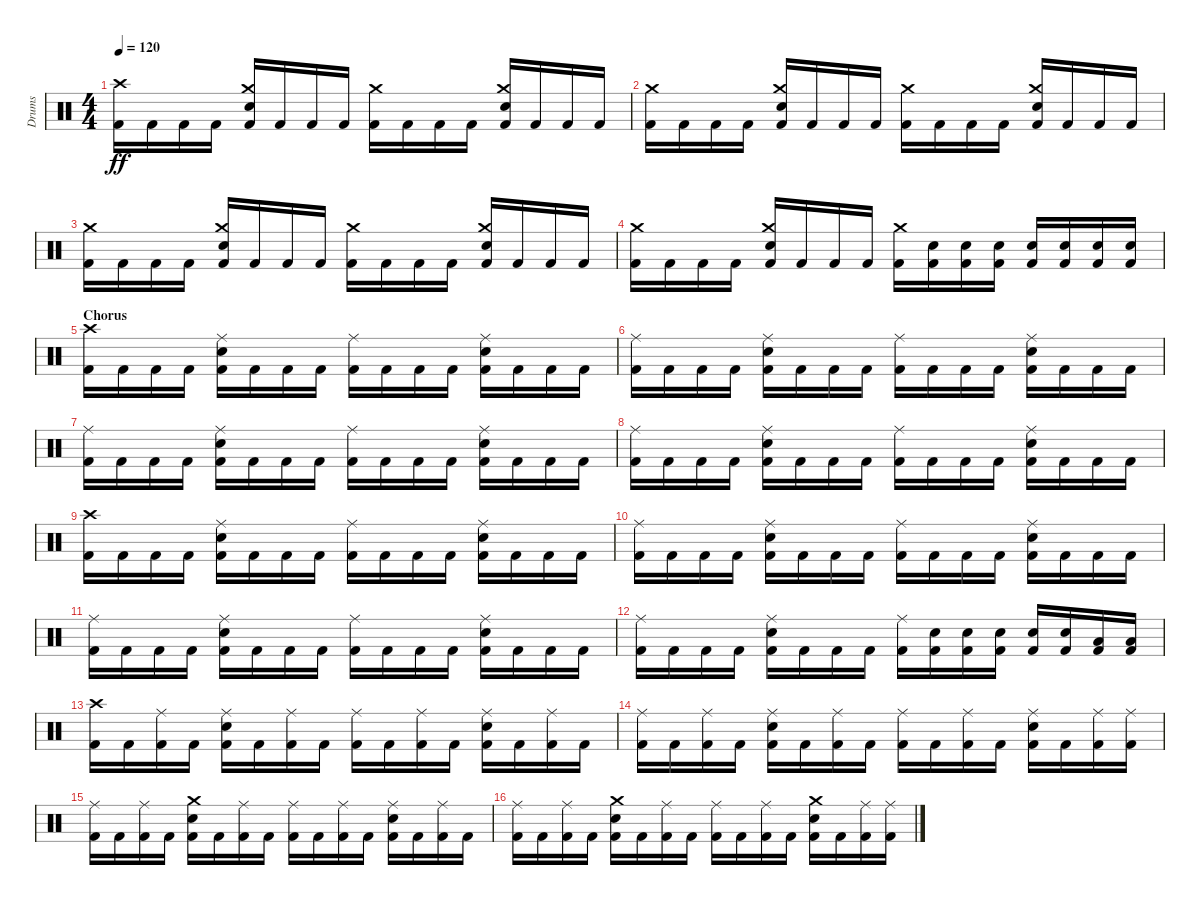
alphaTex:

\track ("Drums" "Drums") {instrument percussion}
\staff {score}
\articulation defaults
\ts (4 4)
\tempo 120
\clef neutral
\ks c
("Crash high (hit)" "Kick (hit) 2").16{dy ff} "Kick (hit) 2".16 "Kick (hit) 2".16 "Kick (hit) 2".16 ("Crash medium (hit)" "Electric Snare (hit)" "Kick (hit) 2").16 "Kick (hit) 2".16 "Kick (hit) 2".16 "Kick (hit) 2".16 ("Crash medium (hit)" "Kick (hit) 2").16 "Kick (hit) 2".16 "Kick (hit) 2".16 "Kick (hit) 2".16 ("Crash medium (hit)" "Electric Snare (hit)" "Kick (hit) 2").16 "Kick (hit) 2".16 "Kick (hit) 2".16 "Kick (hit) 2".16 |
("Crash medium (hit)" "Kick (hit) 2").16 "Kick (hit) 2".16 "Kick (hit) 2".16 "Kick (hit) 2".16 ("Crash medium (hit)" "Electric Snare (hit)" "Kick (hit) 2").16 "Kick (hit) 2".16 "Kick (hit) 2".16 "Kick (hit) 2".16 ("Crash medium (hit)" "Kick (hit) 2").16 "Kick (hit) 2".16 "Kick (hit) 2".16 "Kick (hit) 2".16 ("Crash medium (hit)" "Electric Snare (hit)" "Kick (hit) 2").16 "Kick (hit) 2".16 "Kick (hit) 2".16 "Kick (hit) 2".16 |
("Crash medium (hit)" "Kick (hit) 2").16 "Kick (hit) 2".16 "Kick (hit) 2".16 "Kick (hit) 2".16 ("Crash medium (hit)" "Electric Snare (hit)" "Kick (hit) 2").16 "Kick (hit) 2".16 "Kick (hit) 2".16 "Kick (hit) 2".16 ("Crash medium (hit)" "Kick (hit) 2").16 "Kick (hit) 2".16 "Kick (hit) 2".16 "Kick (hit) 2".16 ("Crash medium (hit)" "Electric Snare (hit)" "Kick (hit) 2").16 "Kick (hit) 2".16 "Kick (hit) 2".16 "Kick (hit) 2".16 |
("Crash medium (hit)" "Kick (hit) 2").16 "Kick (hit) 2".16 "Kick (hit) 2".16 "Kick (hit) 2".16 ("Crash medium (hit)" "Electric Snare (hit)" "Kick (hit) 2").16 "Kick (hit) 2".16 "Kick (hit) 2".16 "Kick (hit) 2".16 ("Crash medium (hit)" "Kick (hit) 2").16 ("Electric Snare (hit)" "Kick (hit) 2").16 ("Electric Snare (hit)" "Kick (hit) 2").16 ("Electric Snare (hit)" "Kick (hit) 2").16 ("Electric Snare (hit)" "Kick (hit) 2").16 ("Electric Snare (hit)" "Kick (hit) 2").16 ("Electric Snare (hit)" "Kick (hit) 2").16 ("Electric Snare (hit)" "Kick (hit) 2").16 |
\section ("" "Chorus")
("Crash high (hit)" "Kick (hit) 2").16 "Kick (hit) 2".16 "Kick (hit) 2".16 "Kick (hit) 2".16 ("Ride (middle)" "Electric Snare (hit)" "Kick (hit) 2").16 "Kick (hit) 2".16 "Kick (hit) 2".16 "Kick (hit) 2".16 ("Ride (middle)" "Kick (hit) 2").16 "Kick (hit) 2".16 "Kick (hit) 2".16 "Kick (hit) 2".16 ("Ride (middle)" "Electric Snare (hit)" "Kick (hit) 2").16 "Kick (hit) 2".16 "Kick (hit) 2".16 "Kick (hit) 2".16 |
("Ride (middle)" "Kick (hit) 2").16 "Kick (hit) 2".16 "Kick (hit) 2".16 "Kick (hit) 2".16 ("Ride (middle)" "Electric Snare (hit)" "Kick (hit) 2").16 "Kick (hit) 2".16 "Kick (hit) 2".16 "Kick (hit) 2".16 ("Ride (middle)" "Kick (hit) 2").16 "Kick (hit) 2".16 "Kick (hit) 2".16 "Kick (hit) 2".16 ("Ride (middle)" "Electric Snare (hit)" "Kick (hit) 2").16 "Kick (hit) 2".16 "Kick (hit) 2".16 "Kick (hit) 2".16 |
("Ride (middle)" "Kick (hit) 2").16 "Kick (hit) 2".16 "Kick (hit) 2".16 "Kick (hit) 2".16 ("Ride (middle)" "Electric Snare (hit)" "Kick (hit) 2").16 "Kick (hit) 2".16 "Kick (hit) 2".16 "Kick (hit) 2".16 ("Ride (middle)" "Kick (hit) 2").16 "Kick (hit) 2".16 "Kick (hit) 2".16 "Kick (hit) 2".16 ("Ride (middle)" "Electric Snare (hit)" "Kick (hit) 2").16 "Kick (hit) 2".16 "Kick (hit) 2".16 "Kick (hit) 2".16 |
("Ride (middle)" "Kick (hit) 2").16 "Kick (hit) 2".16 "Kick (hit) 2".16 "Kick (hit) 2".16 ("Ride (middle)" "Electric Snare (hit)" "Kick (hit) 2").16 "Kick (hit) 2".16 "Kick (hit) 2".16 "Kick (hit) 2".16 ("Ride (middle)" "Kick (hit) 2").16 "Kick (hit) 2".16 "Kick (hit) 2".16 "Kick (hit) 2".16 ("Ride (middle)" "Electric Snare (hit)" "Kick (hit) 2").16 "Kick (hit) 2".16 "Kick (hit) 2".16 "Kick (hit) 2".16 |
("Crash high (hit)" "Kick (hit) 2").16 "Kick (hit) 2".16 "Kick (hit) 2".16 "Kick (hit) 2".16 ("Ride (middle)" "Electric Snare (hit)" "Kick (hit) 2").16 "Kick (hit) 2".16 "Kick (hit) 2".16 "Kick (hit) 2".16 ("Ride (middle)" "Kick (hit) 2").16 "Kick (hit) 2".16 "Kick (hit) 2".16 "Kick (hit) 2".16 ("Ride (middle)" "Electric Snare (hit)" "Kick (hit) 2").16 "Kick (hit) 2".16 "Kick (hit) 2".16 "Kick (hit) 2".16 |
("Ride (middle)" "Kick (hit) 2").16 "Kick (hit) 2".16 "Kick (hit) 2".16 "Kick (hit) 2".16 ("Ride (middle)" "Electric Snare (hit)" "Kick (hit) 2").16 "Kick (hit) 2".16 "Kick (hit) 2".16 "Kick (hit) 2".16 ("Ride (middle)" "Kick (hit) 2").16 "Kick (hit) 2".16 "Kick (hit) 2".16 "Kick (hit) 2".16 ("Ride (middle)" "Electric Snare (hit)" "Kick (hit) 2").16 "Kick (hit) 2".16 "Kick (hit) 2".16 "Kick (hit) 2".16 |
("Ride (middle)" "Kick (hit) 2").16 "Kick (hit) 2".16 "Kick (hit) 2".16 "Kick (hit) 2".16 ("Ride (middle)" "Electric Snare (hit)" "Kick (hit) 2").16 "Kick (hit) 2".16 "Kick (hit) 2".16 "Kick (hit) 2".16 ("Ride (middle)" "Kick (hit) 2").16 "Kick (hit) 2".16 "Kick (hit) 2".16 "Kick (hit) 2".16 ("Ride (middle)" "Electric Snare (hit)" "Kick (hit) 2").16 "Kick (hit) 2".16 "Kick (hit) 2".16 "Kick (hit) 2".16 |
("Ride (middle)" "Kick (hit) 2").16 "Kick (hit) 2".16 "Kick (hit) 2".16 "Kick (hit) 2".16 ("Ride (middle)" "Electric Snare (hit)" "Kick (hit) 2").16 "Kick (hit) 2".16 "Kick (hit) 2".16 "Kick (hit) 2".16 ("Ride (middle)" "Kick (hit) 2").16 ("Electric Snare (hit)" "Kick (hit) 2").16 ("Electric Snare (hit)" "Kick (hit) 2").16 ("Electric Snare (hit)" "Kick (hit) 2").16 ("Electric Snare (hit)" "Kick (hit) 2").16 ("Electric Snare (hit)" "Kick (hit) 2").16 ("Low Tom (hit)" "Kick (hit) 2").16 ("Low Tom (hit)" "Kick (hit) 2").16 |
("Crash high (hit)" "Kick (hit) 2").16 "Kick (hit) 2".16 ("Ride (middle)" "Kick (hit) 2").16 "Kick (hit) 2".16 ("Ride (middle)" "Electric Snare (hit)" "Kick (hit) 2").16 "Kick (hit) 2".16 ("Ride (middle)" "Kick (hit) 2").16 "Kick (hit) 2".16 ("Ride (middle)" "Kick (hit) 2").16 "Kick (hit) 2".16 ("Ride (middle)" "Kick (hit) 2").16 "Kick (hit) 2".16 ("Ride (middle)" "Electric Snare (hit)" "Kick (hit) 2").16 "Kick (hit) 2".16 ("Ride (middle)" "Kick (hit) 2").16 "Kick (hit) 2".16 |
("Ride (middle)" "Kick (hit) 2").16 "Kick (hit) 2".16 ("Ride (middle)" "Kick (hit) 2").16 "Kick (hit) 2".16 ("Ride (middle)" "Electric Snare (hit)" "Kick (hit) 2").16 "Kick (hit) 2".16 ("Ride (middle)" "Kick (hit) 2").16 "Kick (hit) 2".16 ("Ride (middle)" "Kick (hit) 2").16 "Kick (hit) 2".16 ("Ride (middle)" "Kick (hit) 2").16 "Kick (hit) 2".16 ("Ride (middle)" "Electric Snare (hit)" "Kick (hit) 2").16 "Kick (hit) 2".16 ("Ride (middle)" "Kick (hit) 2").16 ("Ride (middle)" "Kick (hit) 2").16 |
("Ride (middle)" "Kick (hit) 2").16 "Kick (hit) 2".16 ("Ride (middle)" "Kick (hit) 2").16 "Kick (hit) 2".16 ("Crash medium (hit)" "Electric Snare (hit)" "Kick (hit) 2").16 "Kick (hit) 2".16 ("Ride (middle)" "Kick (hit) 2").16 "Kick (hit) 2".16 ("Ride (middle)" "Kick (hit) 2").16 "Kick (hit) 2".16 ("Ride (middle)" "Kick (hit) 2").16 "Kick (hit) 2".16 ("Ride (middle)" "Electric Snare (hit)" "Kick (hit) 2").16 "Kick (hit) 2".16 ("Ride (middle)" "Kick (hit) 2").16 "Kick (hit) 2".16 |
("Ride (middle)" "Kick (hit) 2").16 "Kick (hit) 2".16 ("Ride (middle)" "Kick (hit) 2").16 "Kick (hit) 2".16 ("Crash medium (hit)" "Electric Snare (hit)" "Kick (hit) 2").16 "Kick (hit) 2".16 ("Ride (middle)" "Kick (hit) 2").16 "Kick (hit) 2".16 ("Ride (middle)" "Kick (hit) 2").16 "Kick (hit) 2".16 ("Ride (middle)" "Kick (hit) 2").16 "Kick (hit) 2".16 ("Crash medium (hit)" "Electric Snare (hit)" "Kick (hit) 2").16 "Kick (hit) 2".16 ("Ride (middle)" "Kick (hit) 2").16 ("Ride (middle)" "Kick (hit) 2").16
